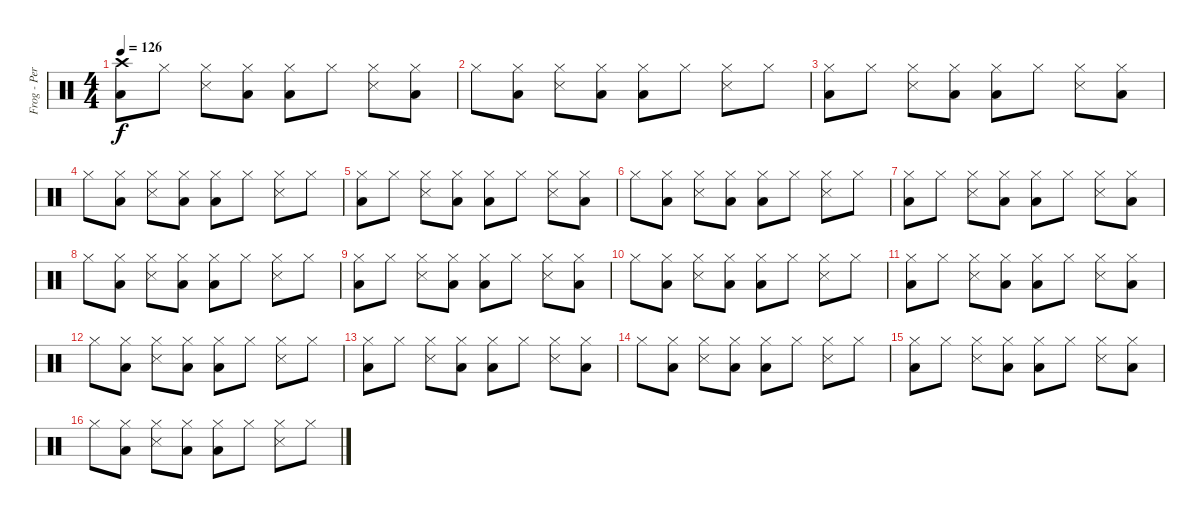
\track ("Frog - Percussions" "Frog - Per") {instrument percussion}
\staff {score}
\articulation defaults
\ts (4 4)
\tempo 126
\clef neutral
\ks c
("Crash high (hit)" "Low Floor Tom (hit)").8{dy f} "Hi-Hat (closed)".8 ("Hi-Hat (closed)" "Snare (side stick) 3").8 ("Hi-Hat (closed)" "Low Floor Tom (hit)").8 ("Hi-Hat (closed)" "Low Floor Tom (hit)").8 "Hi-Hat (closed)".8 ("Hi-Hat (closed)" "Snare (side stick) 3").8 ("Hi-Hat (closed)" "Low Floor Tom (hit)").8 |
"Hi-Hat (closed)".8 ("Hi-Hat (closed)" "Low Floor Tom (hit)").8 ("Hi-Hat (closed)" "Snare (side stick) 3").8 ("Hi-Hat (closed)" "Low Floor Tom (hit)").8 ("Hi-Hat (closed)" "Low Floor Tom (hit)").8 "Hi-Hat (closed)".8 ("Hi-Hat (closed)" "Snare (side stick) 3").8 "Hi-Hat (closed)".8 |
("Hi-Hat (closed)" "Low Floor Tom (hit)").8 "Hi-Hat (closed)".8 ("Hi-Hat (closed)" "Snare (side stick) 3").8 ("Hi-Hat (closed)" "Low Floor Tom (hit)").8 ("Hi-Hat (closed)" "Low Floor Tom (hit)").8 "Hi-Hat (closed)".8 ("Hi-Hat (closed)" "Snare (side stick) 3").8 ("Hi-Hat (closed)" "Low Floor Tom (hit)").8 |
"Hi-Hat (closed)".8 ("Hi-Hat (closed)" "Low Floor Tom (hit)").8 ("Hi-Hat (closed)" "Snare (side stick) 3").8 ("Hi-Hat (closed)" "Low Floor Tom (hit)").8 ("Hi-Hat (closed)" "Low Floor Tom (hit)").8 "Hi-Hat (closed)".8 ("Hi-Hat (closed)" "Snare (side stick) 3").8 "Hi-Hat (closed)".8 |
("Hi-Hat (closed)" "Low Floor Tom (hit)").8 "Hi-Hat (closed)".8 ("Hi-Hat (closed)" "Snare (side stick) 3").8 ("Hi-Hat (closed)" "Low Floor Tom (hit)").8 ("Hi-Hat (closed)" "Low Floor Tom (hit)").8 "Hi-Hat (closed)".8 ("Hi-Hat (closed)" "Snare (side stick) 3").8 ("Hi-Hat (closed)" "Low Floor Tom (hit)").8 |
"Hi-Hat (closed)".8 ("Hi-Hat (closed)" "Low Floor Tom (hit)").8 ("Hi-Hat (closed)" "Snare (side stick) 3").8 ("Hi-Hat (closed)" "Low Floor Tom (hit)").8 ("Hi-Hat (closed)" "Low Floor Tom (hit)").8 "Hi-Hat (closed)".8 ("Hi-Hat (closed)" "Snare (side stick) 3").8 "Hi-Hat (closed)".8 |
("Hi-Hat (closed)" "Low Floor Tom (hit)").8 "Hi-Hat (closed)".8 ("Hi-Hat (closed)" "Snare (side stick) 3").8 ("Hi-Hat (closed)" "Low Floor Tom (hit)").8 ("Hi-Hat (closed)" "Low Floor Tom (hit)").8 "Hi-Hat (closed)".8 ("Hi-Hat (closed)" "Snare (side stick) 3").8 ("Hi-Hat (closed)" "Low Floor Tom (hit)").8 |
"Hi-Hat (closed)".8 ("Hi-Hat (closed)" "Low Floor Tom (hit)").8 ("Hi-Hat (closed)" "Snare (side stick) 3").8 ("Hi-Hat (closed)" "Low Floor Tom (hit)").8 ("Hi-Hat (closed)" "Low Floor Tom (hit)").8 "Hi-Hat (closed)".8 ("Hi-Hat (closed)" "Snare (side stick) 3").8 "Hi-Hat (closed)".8 |
("Hi-Hat (closed)" "Low Floor Tom (hit)").8 "Hi-Hat (closed)".8 ("Hi-Hat (closed)" "Snare (side stick) 3").8 ("Hi-Hat (closed)" "Low Floor Tom (hit)").8 ("Hi-Hat (closed)" "Low Floor Tom (hit)").8 "Hi-Hat (closed)".8 ("Hi-Hat (closed)" "Snare (side stick) 3").8 ("Hi-Hat (closed)" "Low Floor Tom (hit)").8 |
"Hi-Hat (closed)".8 ("Hi-Hat (closed)" "Low Floor Tom (hit)").8 ("Hi-Hat (closed)" "Snare (side stick) 3").8 ("Hi-Hat (closed)" "Low Floor Tom (hit)").8 ("Hi-Hat (closed)" "Low Floor Tom (hit)").8 "Hi-Hat (closed)".8 ("Hi-Hat (closed)" "Snare (side stick) 3").8 "Hi-Hat (closed)".8 |
("Hi-Hat (closed)" "Low Floor Tom (hit)").8 "Hi-Hat (closed)".8 ("Hi-Hat (closed)" "Snare (side stick) 3").8 ("Hi-Hat (closed)" "Low Floor Tom (hit)").8 ("Hi-Hat (closed)" "Low Floor Tom (hit)").8 "Hi-Hat (closed)".8 ("Hi-Hat (closed)" "Snare (side stick) 3").8 ("Hi-Hat (closed)" "Low Floor Tom (hit)").8 |
"Hi-Hat (closed)".8 ("Hi-Hat (closed)" "Low Floor Tom (hit)").8 ("Hi-Hat (closed)" "Snare (side stick) 3").8 ("Hi-Hat (closed)" "Low Floor Tom (hit)").8 ("Hi-Hat (closed)" "Low Floor Tom (hit)").8 "Hi-Hat (closed)".8 ("Hi-Hat (closed)" "Snare (side stick) 3").8 "Hi-Hat (closed)".8 |
("Hi-Hat (closed)" "Low Floor Tom (hit)").8 "Hi-Hat (closed)".8 ("Hi-Hat (closed)" "Snare (side stick) 3").8 ("Hi-Hat (closed)" "Low Floor Tom (hit)").8 ("Hi-Hat (closed)" "Low Floor Tom (hit)").8 "Hi-Hat (closed)".8 ("Hi-Hat (closed)" "Snare (side stick) 3").8 ("Hi-Hat (closed)" "Low Floor Tom (hit)").8 |
"Hi-Hat (closed)".8 ("Hi-Hat (closed)" "Low Floor Tom (hit)").8 ("Hi-Hat (closed)" "Snare (side stick) 3").8 ("Hi-Hat (closed)" "Low Floor Tom (hit)").8 ("Hi-Hat (closed)" "Low Floor Tom (hit)").8 "Hi-Hat (closed)".8 ("Hi-Hat (closed)" "Snare (side stick) 3").8 "Hi-Hat (closed)".8 |
("Hi-Hat (closed)" "Low Floor Tom (hit)").8 "Hi-Hat (closed)".8 ("Hi-Hat (closed)" "Snare (side stick) 3").8 ("Hi-Hat (closed)" "Low Floor Tom (hit)").8 ("Hi-Hat (closed)" "Low Floor Tom (hit)").8 "Hi-Hat (closed)".8 ("Hi-Hat (closed)" "Snare (side stick) 3").8 ("Hi-Hat (closed)" "Low Floor Tom (hit)").8 |
"Hi-Hat (closed)".8 ("Hi-Hat (closed)" "Low Floor Tom (hit)").8 ("Hi-Hat (closed)" "Snare (side stick) 3").8 ("Hi-Hat (closed)" "Low Floor Tom (hit)").8 ("Hi-Hat (closed)" "Low Floor Tom (hit)").8 "Hi-Hat (closed)".8 ("Hi-Hat (closed)" "Snare (side stick) 3").8 "Hi-Hat (closed)".8
